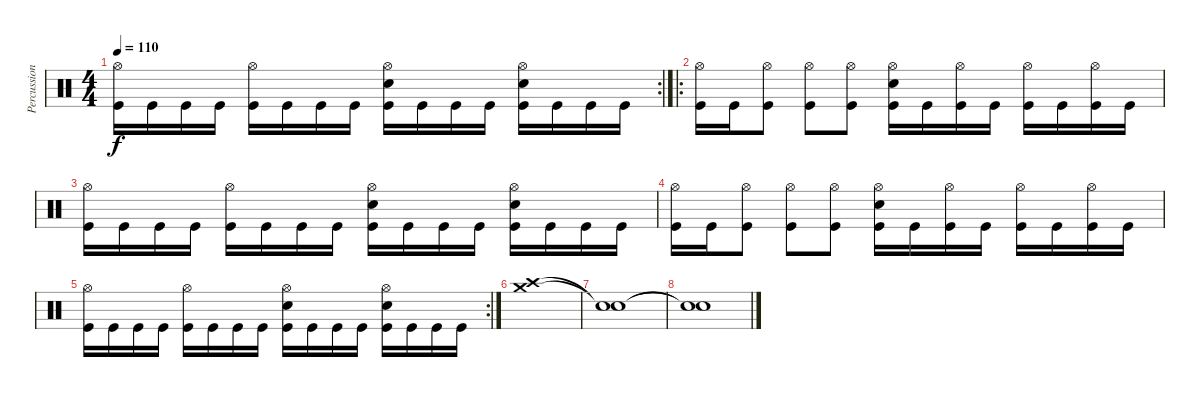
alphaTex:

\track ("Percussion" "Percussion") {instrument percussion}
\staff {score}
\articulation defaults
\rc 2
\ts (4 4)
\tempo 110
\clef neutral
\ks c
("Hi-Hat (open)" "Kick (hit)").16{dy f} "Kick (hit)".16 "Kick (hit)".16 "Kick (hit)".16 ("Hi-Hat (open)" "Kick (hit)").16 "Kick (hit)".16 "Kick (hit)".16 "Kick (hit)".16 ("Hi-Hat (open)" "Electric Snare (hit)" "Kick (hit)").16 "Kick (hit)".16 "Kick (hit)".16 "Kick (hit)".16 ("Hi-Hat (open)" "Electric Snare (hit)" "Kick (hit)").16 "Kick (hit)".16 "Kick (hit)".16 "Kick (hit)".16 |
\ro
("Hi-Hat (open)" "Kick (hit)").16 "Kick (hit)".16 ("Hi-Hat (open)" "Kick (hit)").8 ("Hi-Hat (open)" "Kick (hit)").8 ("Hi-Hat (open)" "Kick (hit)").8 ("Hi-Hat (open)" "Electric Snare (hit)" "Kick (hit)").16 "Kick (hit)".16 ("Hi-Hat (open)" "Kick (hit)").16 "Kick (hit)".16 ("Hi-Hat (open)" "Kick (hit)").16 "Kick (hit)".16 ("Hi-Hat (open)" "Kick (hit)").16 "Kick (hit)".16 |
("Hi-Hat (open)" "Kick (hit)").16 "Kick (hit)".16 "Kick (hit)".16 "Kick (hit)".16 ("Hi-Hat (open)" "Kick (hit)").16 "Kick (hit)".16 "Kick (hit)".16 "Kick (hit)".16 ("Hi-Hat (open)" "Electric Snare (hit)" "Kick (hit)").16 "Kick (hit)".16 "Kick (hit)".16 "Kick (hit)".16 ("Hi-Hat (open)" "Electric Snare (hit)" "Kick (hit)").16 "Kick (hit)".16 "Kick (hit)".16 "Kick (hit)".16 |
("Hi-Hat (open)" "Kick (hit)").16 "Kick (hit)".16 ("Hi-Hat (open)" "Kick (hit)").8 ("Hi-Hat (open)" "Kick (hit)").8 ("Hi-Hat (open)" "Kick (hit)").8 ("Hi-Hat (open)" "Electric Snare (hit)" "Kick (hit)").16 "Kick (hit)".16 ("Hi-Hat (open)" "Kick (hit)").16 "Kick (hit)".16 ("Hi-Hat (open)" "Kick (hit)").16 "Kick (hit)".16 ("Hi-Hat (open)" "Kick (hit)").16 "Kick (hit)".16 |
\rc 2
("Hi-Hat (open)" "Kick (hit)").16 "Kick (hit)".16 "Kick (hit)".16 "Kick (hit)".16 ("Hi-Hat (open)" "Kick (hit)").16 "Kick (hit)".16 "Kick (hit)".16 "Kick (hit)".16 ("Hi-Hat (open)" "Electric Snare (hit)" "Kick (hit)").16 "Kick (hit)".16 "Kick (hit)".16 "Kick (hit)".16 ("Hi-Hat (open)" "Electric Snare (hit)" "Kick (hit)").16 "Kick (hit)".16 "Kick (hit)".16 "Kick (hit)".16 |
("Crash medium (hit)" "Crash high (hit)").1 |
("Snare (hit)"{t} "Snare (hit)"{t}).1 |
("Snare (hit)"{t} "Snare (hit)"{t}).1
